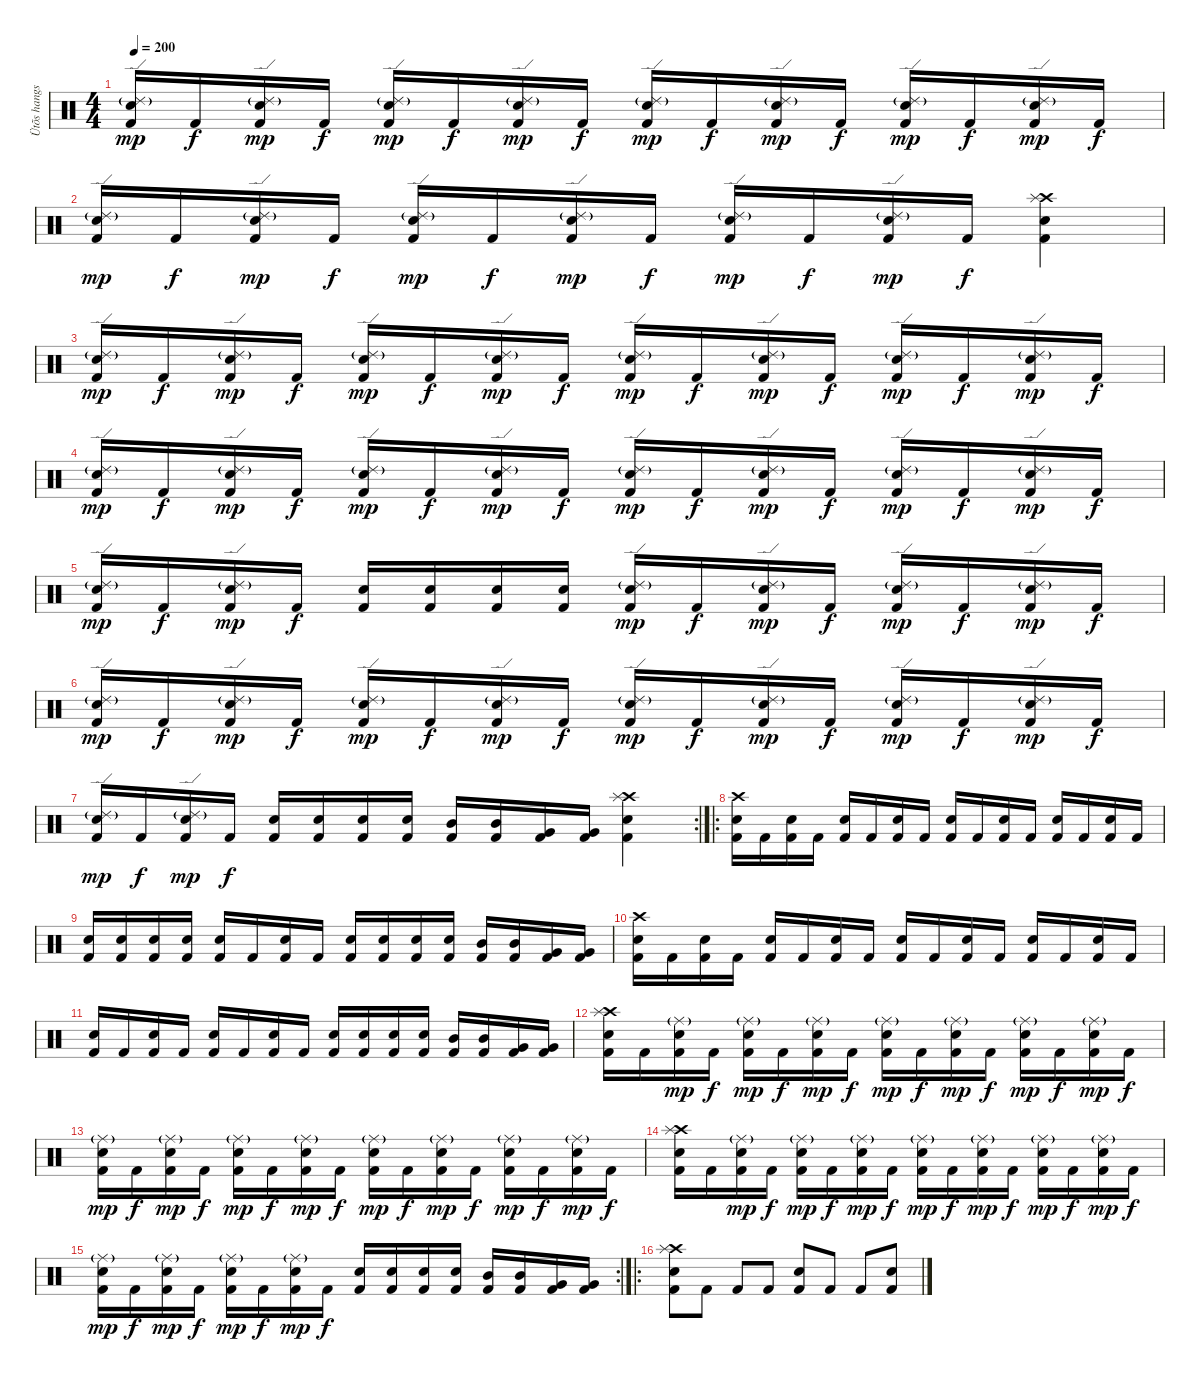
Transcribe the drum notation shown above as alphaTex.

\track ("Ütõs hangszer" "Ütõs hangs") {instrument percussion}
\staff {score}
\articulation defaults
\ts (4 4)
\tempo 200
\clef neutral
\ks c
("Ride (edge) 2"{g} "Electric Snare (hit)" "Kick (hit) 2").16{dy mp} "Kick (hit) 2".16{dy f} ("Ride (edge) 2"{g} "Electric Snare (hit)" "Kick (hit) 2").16{dy mp} "Kick (hit) 2".16{dy f} ("Ride (edge) 2"{g} "Electric Snare (hit)" "Kick (hit) 2").16{dy mp} "Kick (hit) 2".16{dy f} ("Ride (edge) 2"{g} "Electric Snare (hit)" "Kick (hit) 2").16{dy mp} "Kick (hit) 2".16{dy f} ("Ride (edge) 2"{g} "Electric Snare (hit)" "Kick (hit) 2").16{dy mp} "Kick (hit) 2".16{dy f} ("Ride (edge) 2"{g} "Electric Snare (hit)" "Kick (hit) 2").16{dy mp} "Kick (hit) 2".16{dy f} ("Ride (edge) 2"{g} "Electric Snare (hit)" "Kick (hit) 2").16{dy mp} "Kick (hit) 2".16{dy f} ("Ride (edge) 2"{g} "Electric Snare (hit)" "Kick (hit) 2").16{dy mp} "Kick (hit) 2".16{dy f} |
("Ride (edge) 2"{g} "Electric Snare (hit)" "Kick (hit) 2").16{dy mp} "Kick (hit) 2".16{dy f} ("Ride (edge) 2"{g} "Electric Snare (hit)" "Kick (hit) 2").16{dy mp} "Kick (hit) 2".16{dy f} ("Ride (edge) 2"{g} "Electric Snare (hit)" "Kick (hit) 2").16{dy mp} "Kick (hit) 2".16{dy f} ("Ride (edge) 2"{g} "Electric Snare (hit)" "Kick (hit) 2").16{dy mp} "Kick (hit) 2".16{dy f} ("Ride (edge) 2"{g} "Electric Snare (hit)" "Kick (hit) 2").16{dy mp} "Kick (hit) 2".16{dy f} ("Ride (edge) 2"{g} "Electric Snare (hit)" "Kick (hit) 2").16{dy mp} "Kick (hit) 2".16{dy f} ("Crash high (hit)" "Splash (hit)" "Electric Snare (hit)" "Kick (hit) 2").4 |
("Ride (edge) 2"{g} "Electric Snare (hit)" "Kick (hit) 2").16{dy mp} "Kick (hit) 2".16{dy f} ("Ride (edge) 2"{g} "Electric Snare (hit)" "Kick (hit) 2").16{dy mp} "Kick (hit) 2".16{dy f} ("Ride (edge) 2"{g} "Electric Snare (hit)" "Kick (hit) 2").16{dy mp} "Kick (hit) 2".16{dy f} ("Ride (edge) 2"{g} "Electric Snare (hit)" "Kick (hit) 2").16{dy mp} "Kick (hit) 2".16{dy f} ("Ride (edge) 2"{g} "Electric Snare (hit)" "Kick (hit) 2").16{dy mp} "Kick (hit) 2".16{dy f} ("Ride (edge) 2"{g} "Electric Snare (hit)" "Kick (hit) 2").16{dy mp} "Kick (hit) 2".16{dy f} ("Ride (edge) 2"{g} "Electric Snare (hit)" "Kick (hit) 2").16{dy mp} "Kick (hit) 2".16{dy f} ("Ride (edge) 2"{g} "Electric Snare (hit)" "Kick (hit) 2").16{dy mp} "Kick (hit) 2".16{dy f} |
("Ride (edge) 2"{g} "Electric Snare (hit)" "Kick (hit) 2").16{dy mp} "Kick (hit) 2".16{dy f} ("Ride (edge) 2"{g} "Electric Snare (hit)" "Kick (hit) 2").16{dy mp} "Kick (hit) 2".16{dy f} ("Ride (edge) 2"{g} "Electric Snare (hit)" "Kick (hit) 2").16{dy mp} "Kick (hit) 2".16{dy f} ("Ride (edge) 2"{g} "Electric Snare (hit)" "Kick (hit) 2").16{dy mp} "Kick (hit) 2".16{dy f} ("Ride (edge) 2"{g} "Electric Snare (hit)" "Kick (hit) 2").16{dy mp} "Kick (hit) 2".16{dy f} ("Ride (edge) 2"{g} "Electric Snare (hit)" "Kick (hit) 2").16{dy mp} "Kick (hit) 2".16{dy f} ("Ride (edge) 2"{g} "Electric Snare (hit)" "Kick (hit) 2").16{dy mp} "Kick (hit) 2".16{dy f} ("Ride (edge) 2"{g} "Electric Snare (hit)" "Kick (hit) 2").16{dy mp} "Kick (hit) 2".16{dy f} |
("Ride (edge) 2"{g} "Electric Snare (hit)" "Kick (hit) 2").16{dy mp} "Kick (hit) 2".16{dy f} ("Ride (edge) 2"{g} "Electric Snare (hit)" "Kick (hit) 2").16{dy mp} "Kick (hit) 2".16{dy f} ("Electric Snare (hit)" "Kick (hit) 2").16 ("Electric Snare (hit)" "Kick (hit) 2").16 ("Electric Snare (hit)" "Kick (hit) 2").16 ("Electric Snare (hit)" "Kick (hit) 2").16 ("Ride (edge) 2"{g} "Electric Snare (hit)" "Kick (hit) 2").16{dy mp} "Kick (hit) 2".16{dy f} ("Ride (edge) 2"{g} "Electric Snare (hit)" "Kick (hit) 2").16{dy mp} "Kick (hit) 2".16{dy f} ("Ride (edge) 2"{g} "Electric Snare (hit)" "Kick (hit) 2").16{dy mp} "Kick (hit) 2".16{dy f} ("Ride (edge) 2"{g} "Electric Snare (hit)" "Kick (hit) 2").16{dy mp} "Kick (hit) 2".16{dy f} |
("Ride (edge) 2"{g} "Electric Snare (hit)" "Kick (hit) 2").16{dy mp} "Kick (hit) 2".16{dy f} ("Ride (edge) 2"{g} "Electric Snare (hit)" "Kick (hit) 2").16{dy mp} "Kick (hit) 2".16{dy f} ("Ride (edge) 2"{g} "Electric Snare (hit)" "Kick (hit) 2").16{dy mp} "Kick (hit) 2".16{dy f} ("Ride (edge) 2"{g} "Electric Snare (hit)" "Kick (hit) 2").16{dy mp} "Kick (hit) 2".16{dy f} ("Ride (edge) 2"{g} "Electric Snare (hit)" "Kick (hit) 2").16{dy mp} "Kick (hit) 2".16{dy f} ("Ride (edge) 2"{g} "Electric Snare (hit)" "Kick (hit) 2").16{dy mp} "Kick (hit) 2".16{dy f} ("Ride (edge) 2"{g} "Electric Snare (hit)" "Kick (hit) 2").16{dy mp} "Kick (hit) 2".16{dy f} ("Ride (edge) 2"{g} "Electric Snare (hit)" "Kick (hit) 2").16{dy mp} "Kick (hit) 2".16{dy f} |
\rc 2
("Ride (edge) 2"{g} "Electric Snare (hit)" "Kick (hit) 2").16{dy mp} "Kick (hit) 2".16{dy f} ("Ride (edge) 2"{g} "Electric Snare (hit)" "Kick (hit) 2").16{dy mp} "Kick (hit) 2".16{dy f} ("Electric Snare (hit)" "Kick (hit) 2").16 ("Electric Snare (hit)" "Kick (hit) 2").16 ("Electric Snare (hit)" "Kick (hit) 2").16 ("Electric Snare (hit)" "Kick (hit) 2").16 ("Mid Tom (hit)" "Kick (hit) 2").16 ("Mid Tom (hit)" "Kick (hit) 2").16 ("Very Low Tom (hit)" "Kick (hit) 2").16 ("Very Low Tom (hit)" "Kick (hit) 2").16 ("Crash high (hit)" "Splash (hit)" "Electric Snare (hit)" "Kick (hit) 2").4 |
\ro
("Crash high (hit)" "Electric Snare (hit)" "Kick (hit) 2").16 "Kick (hit) 2".16 ("Electric Snare (hit)" "Kick (hit) 2").16 "Kick (hit) 2".16 ("Electric Snare (hit)" "Kick (hit) 2").16 "Kick (hit) 2".16 ("Electric Snare (hit)" "Kick (hit) 2").16 "Kick (hit) 2".16 ("Electric Snare (hit)" "Kick (hit) 2").16 "Kick (hit) 2".16 ("Electric Snare (hit)" "Kick (hit) 2").16 "Kick (hit) 2".16 ("Electric Snare (hit)" "Kick (hit) 2").16 "Kick (hit) 2".16 ("Electric Snare (hit)" "Kick (hit) 2").16 "Kick (hit) 2".16 |
("Electric Snare (hit)" "Kick (hit) 2").16 ("Electric Snare (hit)" "Kick (hit) 2").16 ("Electric Snare (hit)" "Kick (hit) 2").16 ("Electric Snare (hit)" "Kick (hit) 2").16 ("Electric Snare (hit)" "Kick (hit) 2").16 "Kick (hit) 2".16 ("Electric Snare (hit)" "Kick (hit) 2").16 "Kick (hit) 2".16 ("Electric Snare (hit)" "Kick (hit) 2").16 ("Electric Snare (hit)" "Kick (hit) 2").16 ("Electric Snare (hit)" "Kick (hit) 2").16 ("Electric Snare (hit)" "Kick (hit) 2").16 ("Mid Tom (hit)" "Kick (hit) 2").16 ("Mid Tom (hit)" "Kick (hit) 2").16 ("Very Low Tom (hit)" "Kick (hit) 2").16 ("Very Low Tom (hit)" "Kick (hit) 2").16 |
("Crash high (hit)" "Electric Snare (hit)" "Kick (hit) 2").16 "Kick (hit) 2".16 ("Electric Snare (hit)" "Kick (hit) 2").16 "Kick (hit) 2".16 ("Electric Snare (hit)" "Kick (hit) 2").16 "Kick (hit) 2".16 ("Electric Snare (hit)" "Kick (hit) 2").16 "Kick (hit) 2".16 ("Electric Snare (hit)" "Kick (hit) 2").16 "Kick (hit) 2".16 ("Electric Snare (hit)" "Kick (hit) 2").16 "Kick (hit) 2".16 ("Electric Snare (hit)" "Kick (hit) 2").16 "Kick (hit) 2".16 ("Electric Snare (hit)" "Kick (hit) 2").16 "Kick (hit) 2".16 |
("Electric Snare (hit)" "Kick (hit) 2").16 "Kick (hit) 2".16 ("Electric Snare (hit)" "Kick (hit) 2").16 "Kick (hit) 2".16 ("Electric Snare (hit)" "Kick (hit) 2").16 "Kick (hit) 2".16 ("Electric Snare (hit)" "Kick (hit) 2").16 "Kick (hit) 2".16 ("Electric Snare (hit)" "Kick (hit) 2").16 ("Electric Snare (hit)" "Kick (hit) 2").16 ("Electric Snare (hit)" "Kick (hit) 2").16 ("Electric Snare (hit)" "Kick (hit) 2").16 ("Mid Tom (hit)" "Kick (hit) 2").16 ("Mid Tom (hit)" "Kick (hit) 2").16 ("Very Low Tom (hit)" "Kick (hit) 2").16 ("Very Low Tom (hit)" "Kick (hit) 2").16 |
("Crash high (hit)" "Splash (hit)" "Electric Snare (hit)" "Kick (hit) 2").16 "Kick (hit) 2".16 ("Ride (middle)"{g} "Electric Snare (hit)" "Kick (hit) 2").16{dy mp} "Kick (hit) 2".16{dy f} ("Ride (middle)"{g} "Electric Snare (hit)" "Kick (hit) 2").16{dy mp} "Kick (hit) 2".16{dy f} ("Ride (middle)"{g} "Electric Snare (hit)" "Kick (hit) 2").16{dy mp} "Kick (hit) 2".16{dy f} ("Ride (middle)"{g} "Electric Snare (hit)" "Kick (hit) 2").16{dy mp} "Kick (hit) 2".16{dy f} ("Ride (middle)"{g} "Electric Snare (hit)" "Kick (hit) 2").16{dy mp} "Kick (hit) 2".16{dy f} ("Ride (middle)"{g} "Electric Snare (hit)" "Kick (hit) 2").16{dy mp} "Kick (hit) 2".16{dy f} ("Ride (middle)"{g} "Electric Snare (hit)" "Kick (hit) 2").16{dy mp} "Kick (hit) 2".16{dy f} |
("Ride (middle)"{g} "Electric Snare (hit)" "Kick (hit) 2").16{dy mp} "Kick (hit) 2".16{dy f} ("Ride (middle)"{g} "Electric Snare (hit)" "Kick (hit) 2").16{dy mp} "Kick (hit) 2".16{dy f} ("Ride (middle)"{g} "Electric Snare (hit)" "Kick (hit) 2").16{dy mp} "Kick (hit) 2".16{dy f} ("Ride (middle)"{g} "Electric Snare (hit)" "Kick (hit) 2").16{dy mp} "Kick (hit) 2".16{dy f} ("Ride (middle)"{g} "Electric Snare (hit)" "Kick (hit) 2").16{dy mp} "Kick (hit) 2".16{dy f} ("Ride (middle)"{g} "Electric Snare (hit)" "Kick (hit) 2").16{dy mp} "Kick (hit) 2".16{dy f} ("Ride (middle)"{g} "Electric Snare (hit)" "Kick (hit) 2").16{dy mp} "Kick (hit) 2".16{dy f} ("Ride (middle)"{g} "Electric Snare (hit)" "Kick (hit) 2").16{dy mp} "Kick (hit) 2".16{dy f} |
("Crash high (hit)" "Splash (hit)" "Electric Snare (hit)" "Kick (hit) 2").16 "Kick (hit) 2".16 ("Ride (middle)"{g} "Electric Snare (hit)" "Kick (hit) 2").16{dy mp} "Kick (hit) 2".16{dy f} ("Ride (middle)"{g} "Electric Snare (hit)" "Kick (hit) 2").16{dy mp} "Kick (hit) 2".16{dy f} ("Ride (middle)"{g} "Electric Snare (hit)" "Kick (hit) 2").16{dy mp} "Kick (hit) 2".16{dy f} ("Ride (middle)"{g} "Electric Snare (hit)" "Kick (hit) 2").16{dy mp} "Kick (hit) 2".16{dy f} ("Ride (middle)"{g} "Electric Snare (hit)" "Kick (hit) 2").16{dy mp} "Kick (hit) 2".16{dy f} ("Ride (middle)"{g} "Electric Snare (hit)" "Kick (hit) 2").16{dy mp} "Kick (hit) 2".16{dy f} ("Ride (middle)"{g} "Electric Snare (hit)" "Kick (hit) 2").16{dy mp} "Kick (hit) 2".16{dy f} |
\rc 2
("Ride (middle)"{g} "Electric Snare (hit)" "Kick (hit) 2").16{dy mp} "Kick (hit) 2".16{dy f} ("Ride (middle)"{g} "Electric Snare (hit)" "Kick (hit) 2").16{dy mp} "Kick (hit) 2".16{dy f} ("Ride (middle)"{g} "Electric Snare (hit)" "Kick (hit) 2").16{dy mp} "Kick (hit) 2".16{dy f} ("Ride (middle)"{g} "Electric Snare (hit)" "Kick (hit) 2").16{dy mp} "Kick (hit) 2".16{dy f} ("Electric Snare (hit)" "Kick (hit) 2").16 ("Electric Snare (hit)" "Kick (hit) 2").16 ("Electric Snare (hit)" "Kick (hit) 2").16 ("Electric Snare (hit)" "Kick (hit) 2").16 ("Mid Tom (hit)" "Kick (hit) 2").16 ("Mid Tom (hit)" "Kick (hit) 2").16 ("Very Low Tom (hit)" "Kick (hit) 2").16 ("Very Low Tom (hit)" "Kick (hit) 2").16 |
\ro
("Crash high (hit)" "Splash (hit)" "Electric Snare (hit)" "Kick (hit) 2").8 "Kick (hit) 2".8 "Kick (hit) 2".8 "Kick (hit) 2".8 ("Electric Snare (hit)" "Kick (hit) 2").8 "Kick (hit) 2".8 "Kick (hit) 2".8 ("Electric Snare (hit)" "Kick (hit) 2").8
